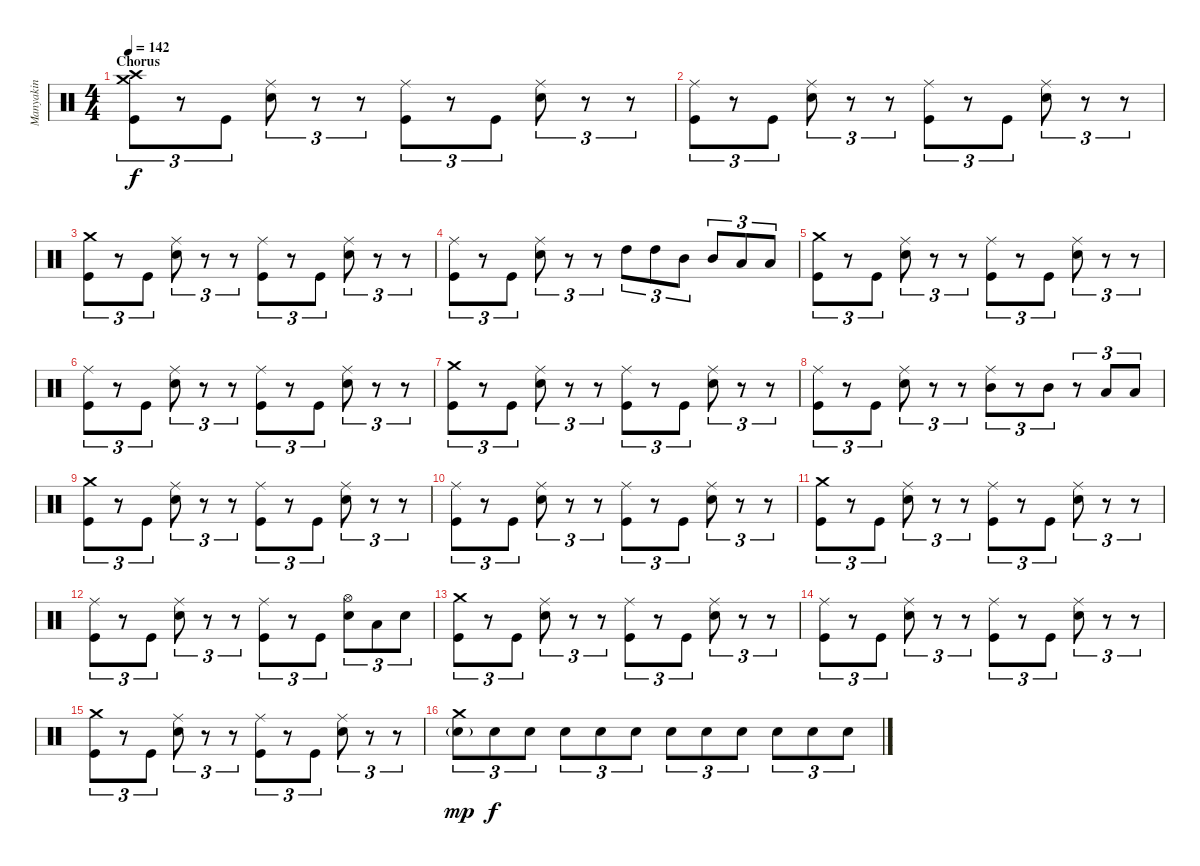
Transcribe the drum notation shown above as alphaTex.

\track ("Manyakin" "Manyakin") {instrument percussion}
\staff {score}
\articulation defaults
\ts (4 4)
\section ("" "Chorus")
\tempo 142
\clef neutral
\ks c
("Kick (hit)" "Crash high (hit)" "Crash medium (hit)").8{tu (3 2) dy f} r.8{tu (3 2)} "Kick (hit)".8{tu (3 2)} ("Electric Snare (hit)" "Ride (middle)").8{tu (3 2)} r.8{tu (3 2)} r.8{tu (3 2)} ("Kick (hit)" "Ride (middle)").8{tu (3 2)} r.8{tu (3 2)} "Kick (hit)".8{tu (3 2)} ("Electric Snare (hit)" "Ride (middle)").8{tu (3 2)} r.8{tu (3 2)} r.8{tu (3 2)} |
("Kick (hit)" "Ride (middle)").8{tu (3 2)} r.8{tu (3 2)} "Kick (hit)".8{tu (3 2)} ("Electric Snare (hit)" "Ride (middle)").8{tu (3 2)} r.8{tu (3 2)} r.8{tu (3 2)} ("Kick (hit)" "Ride (middle)").8{tu (3 2)} r.8{tu (3 2)} "Kick (hit)".8{tu (3 2)} ("Electric Snare (hit)" "Ride (middle)").8{tu (3 2)} r.8{tu (3 2)} r.8{tu (3 2)} |
("Kick (hit)" "Crash medium (hit)").8{tu (3 2)} r.8{tu (3 2)} "Kick (hit)".8{tu (3 2)} ("Electric Snare (hit)" "Ride (middle)").8{tu (3 2)} r.8{tu (3 2)} r.8{tu (3 2)} ("Kick (hit)" "Ride (middle)").8{tu (3 2)} r.8{tu (3 2)} "Kick (hit)".8{tu (3 2)} ("Electric Snare (hit)" "Ride (middle)").8{tu (3 2)} r.8{tu (3 2)} r.8{tu (3 2)} |
("Kick (hit)" "Ride (middle)").8{tu (3 2)} r.8{tu (3 2)} "Kick (hit)".8{tu (3 2)} ("Electric Snare (hit)" "Ride (middle)").8{tu (3 2)} r.8{tu (3 2)} r.8{tu (3 2)} "High Tom (hit)".8{tu (3 2)} "High Tom (hit)".8{tu (3 2)} "Mid Tom (hit)".8{tu (3 2)} "Mid Tom (hit)".8{tu (3 2)} "Low Tom (hit)".8{tu (3 2)} "Low Tom (hit)".8{tu (3 2)} |
("Kick (hit)" "Crash medium (hit)").8{tu (3 2)} r.8{tu (3 2)} "Kick (hit)".8{tu (3 2)} ("Electric Snare (hit)" "Ride (middle)").8{tu (3 2)} r.8{tu (3 2)} r.8{tu (3 2)} ("Kick (hit)" "Ride (middle)").8{tu (3 2)} r.8{tu (3 2)} "Kick (hit)".8{tu (3 2)} ("Electric Snare (hit)" "Ride (middle)").8{tu (3 2)} r.8{tu (3 2)} r.8{tu (3 2)} |
("Kick (hit)" "Ride (middle)").8{tu (3 2)} r.8{tu (3 2)} "Kick (hit)".8{tu (3 2)} ("Electric Snare (hit)" "Ride (middle)").8{tu (3 2)} r.8{tu (3 2)} r.8{tu (3 2)} ("Kick (hit)" "Ride (middle)").8{tu (3 2)} r.8{tu (3 2)} "Kick (hit)".8{tu (3 2)} ("Electric Snare (hit)" "Ride (middle)").8{tu (3 2)} r.8{tu (3 2)} r.8{tu (3 2)} |
("Kick (hit)" "Crash medium (hit)").8{tu (3 2)} r.8{tu (3 2)} "Kick (hit)".8{tu (3 2)} ("Electric Snare (hit)" "Ride (middle)").8{tu (3 2)} r.8{tu (3 2)} r.8{tu (3 2)} ("Kick (hit)" "Ride (middle)").8{tu (3 2)} r.8{tu (3 2)} "Kick (hit)".8{tu (3 2)} ("Electric Snare (hit)" "Ride (middle)").8{tu (3 2)} r.8{tu (3 2)} r.8{tu (3 2)} |
("Kick (hit)" "Ride (middle)").8{tu (3 2)} r.8{tu (3 2)} "Kick (hit)".8{tu (3 2)} ("Electric Snare (hit)" "Ride (middle)").8{tu (3 2)} r.8{tu (3 2)} r.8{tu (3 2)} ("Mid Tom (hit)" "Ride (middle)").8{tu (3 2)} r.8{tu (3 2)} "Mid Tom (hit)".8{tu (3 2)} r.8{tu (3 2)} "Low Tom (hit)".8{tu (3 2)} "Low Tom (hit)".8{tu (3 2)} |
("Kick (hit)" "Crash medium (hit)").8{tu (3 2)} r.8{tu (3 2)} "Kick (hit)".8{tu (3 2)} ("Electric Snare (hit)" "Ride (middle)").8{tu (3 2)} r.8{tu (3 2)} r.8{tu (3 2)} ("Kick (hit)" "Ride (middle)").8{tu (3 2)} r.8{tu (3 2)} "Kick (hit)".8{tu (3 2)} ("Electric Snare (hit)" "Ride (middle)").8{tu (3 2)} r.8{tu (3 2)} r.8{tu (3 2)} |
("Kick (hit)" "Ride (middle)").8{tu (3 2)} r.8{tu (3 2)} "Kick (hit)".8{tu (3 2)} ("Electric Snare (hit)" "Ride (middle)").8{tu (3 2)} r.8{tu (3 2)} r.8{tu (3 2)} ("Kick (hit)" "Ride (middle)").8{tu (3 2)} r.8{tu (3 2)} "Kick (hit)".8{tu (3 2)} ("Electric Snare (hit)" "Ride (middle)").8{tu (3 2)} r.8{tu (3 2)} r.8{tu (3 2)} |
("Kick (hit)" "Crash medium (hit)").8{tu (3 2)} r.8{tu (3 2)} "Kick (hit)".8{tu (3 2)} ("Electric Snare (hit)" "Ride (middle)").8{tu (3 2)} r.8{tu (3 2)} r.8{tu (3 2)} ("Kick (hit)" "Ride (middle)").8{tu (3 2)} r.8{tu (3 2)} "Kick (hit)".8{tu (3 2)} ("Electric Snare (hit)" "Ride (middle)").8{tu (3 2)} r.8{tu (3 2)} r.8{tu (3 2)} |
("Kick (hit)" "Ride (middle)").8{tu (3 2)} r.8{tu (3 2)} "Kick (hit)".8{tu (3 2)} ("Electric Snare (hit)" "Ride (middle)").8{tu (3 2)} r.8{tu (3 2)} r.8{tu (3 2)} ("Kick (hit)" "Ride (middle)").8{tu (3 2)} r.8{tu (3 2)} "Kick (hit)".8{tu (3 2)} ("Electric Snare (hit)" "Hi-Hat (open)").8{tu (3 2)} "Low Tom (hit)".8{tu (3 2)} "Electric Snare (hit)".8{tu (3 2)} |
("Kick (hit)" "Crash medium (hit)").8{tu (3 2)} r.8{tu (3 2)} "Kick (hit)".8{tu (3 2)} ("Electric Snare (hit)" "Ride (middle)").8{tu (3 2)} r.8{tu (3 2)} r.8{tu (3 2)} ("Kick (hit)" "Ride (middle)").8{tu (3 2)} r.8{tu (3 2)} "Kick (hit)".8{tu (3 2)} ("Electric Snare (hit)" "Ride (middle)").8{tu (3 2)} r.8{tu (3 2)} r.8{tu (3 2)} |
("Kick (hit)" "Ride (middle)").8{tu (3 2)} r.8{tu (3 2)} "Kick (hit)".8{tu (3 2)} ("Electric Snare (hit)" "Ride (middle)").8{tu (3 2)} r.8{tu (3 2)} r.8{tu (3 2)} ("Kick (hit)" "Ride (middle)").8{tu (3 2)} r.8{tu (3 2)} "Kick (hit)".8{tu (3 2)} ("Electric Snare (hit)" "Ride (middle)").8{tu (3 2)} r.8{tu (3 2)} r.8{tu (3 2)} |
("Kick (hit)" "Crash medium (hit)").8{tu (3 2)} r.8{tu (3 2)} "Kick (hit)".8{tu (3 2)} ("Electric Snare (hit)" "Ride (middle)").8{tu (3 2)} r.8{tu (3 2)} r.8{tu (3 2)} ("Kick (hit)" "Ride (middle)").8{tu (3 2)} r.8{tu (3 2)} "Kick (hit)".8{tu (3 2)} ("Electric Snare (hit)" "Ride (middle)").8{tu (3 2)} r.8{tu (3 2)} r.8{tu (3 2)} |
("Electric Snare (hit)"{g} "Crash medium (hit)").8{tu (3 2) dy mp} "Electric Snare (hit)".8{tu (3 2) dy f} "Electric Snare (hit)".8{tu (3 2)} "Electric Snare (hit)".8{tu (3 2)} "Electric Snare (hit)".8{tu (3 2)} "Electric Snare (hit)".8{tu (3 2)} "Electric Snare (hit)".8{tu (3 2)} "Electric Snare (hit)".8{tu (3 2)} "Electric Snare (hit)".8{tu (3 2)} "Electric Snare (hit)".8{tu (3 2)} "Electric Snare (hit)".8{tu (3 2)} "Electric Snare (hit)".8{tu (3 2)}
